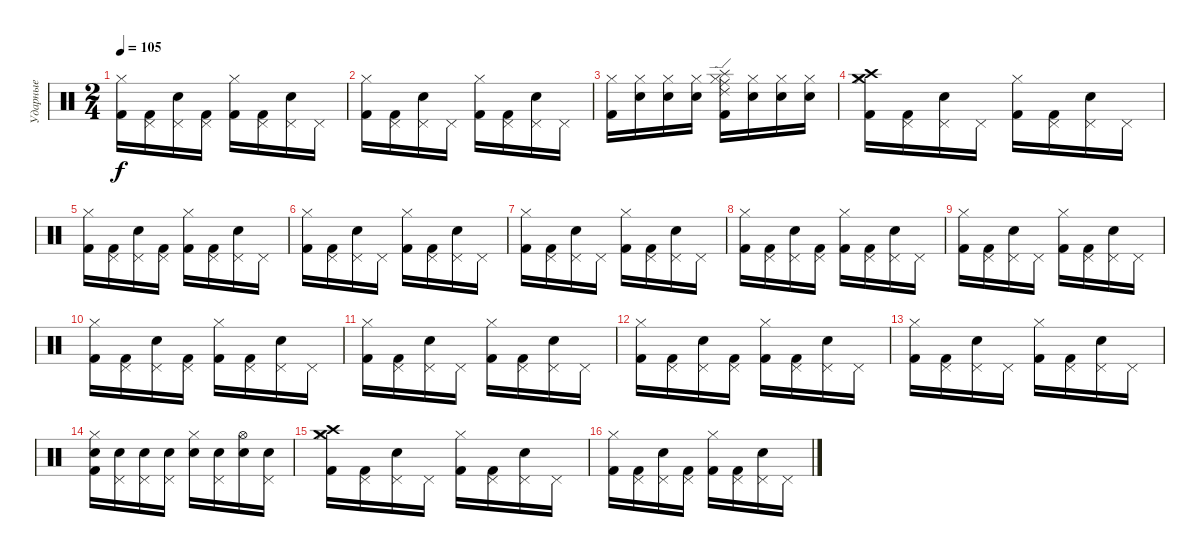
\track ("Ударные" "Ударные") {instrument percussion}
\staff {score}
\articulation defaults
\ts (2 4)
\tempo 105
\clef neutral
\ks c
("Hi-Hat (closed)" "Kick (hit) 2").16{dy f} ("Pedal Hi-Hat (hit)" "Kick (hit) 2").16 ("Pedal Hi-Hat (hit)" "Snare (hit) 2").16 ("Pedal Hi-Hat (hit)" "Kick (hit) 2").16 ("Hi-Hat (closed)" "Kick (hit) 2").16 ("Pedal Hi-Hat (hit)" "Kick (hit) 2").16 ("Pedal Hi-Hat (hit)" "Snare (hit) 2").16 "Pedal Hi-Hat (hit)".16 |
("Hi-Hat (closed)" "Kick (hit) 2").16 ("Pedal Hi-Hat (hit)" "Kick (hit) 2").16 ("Pedal Hi-Hat (hit)" "Snare (hit) 2").16 "Pedal Hi-Hat (hit)".16 ("Hi-Hat (closed)" "Kick (hit) 2").16 ("Pedal Hi-Hat (hit)" "Kick (hit) 2").16 ("Pedal Hi-Hat (hit)" "Snare (hit) 2").16 "Pedal Hi-Hat (hit)".16 |
("Hi-Hat (closed)" "Kick (hit) 2").16 ("Hi-Hat (closed)" "Snare (hit) 2").16 ("Hi-Hat (closed)" "Snare (hit) 2").16 ("Hi-Hat (closed)" "Snare (hit) 2").16 ("Hi-Hat (closed)" "Ride (middle)" "Ride (edge) 2" "Splash (hit)" "Kick (hit) 2").16 ("Hi-Hat (closed)" "Snare (hit) 2").16 ("Hi-Hat (closed)" "Snare (hit) 2").16 ("Hi-Hat (closed)" "Snare (hit) 2").16 |
("Hi-Hat (closed)" "Crash medium (hit)" "Crash high (hit)" "Kick (hit) 2").16 ("Pedal Hi-Hat (hit)" "Kick (hit) 2").16 ("Pedal Hi-Hat (hit)" "Snare (hit) 2").16 "Pedal Hi-Hat (hit)".16 ("Hi-Hat (closed)" "Kick (hit) 2").16 ("Pedal Hi-Hat (hit)" "Kick (hit) 2").16 ("Pedal Hi-Hat (hit)" "Snare (hit) 2").16 "Pedal Hi-Hat (hit)".16 |
("Hi-Hat (closed)" "Kick (hit) 2").16 ("Pedal Hi-Hat (hit)" "Kick (hit) 2").16 ("Pedal Hi-Hat (hit)" "Snare (hit) 2").16 ("Pedal Hi-Hat (hit)" "Kick (hit) 2").16 ("Hi-Hat (closed)" "Kick (hit) 2").16 ("Pedal Hi-Hat (hit)" "Kick (hit) 2").16 ("Pedal Hi-Hat (hit)" "Snare (hit) 2").16 "Pedal Hi-Hat (hit)".16 |
("Hi-Hat (closed)" "Kick (hit) 2").16 ("Pedal Hi-Hat (hit)" "Kick (hit) 2").16 ("Pedal Hi-Hat (hit)" "Snare (hit) 2").16 "Pedal Hi-Hat (hit)".16 ("Hi-Hat (closed)" "Kick (hit) 2").16 ("Pedal Hi-Hat (hit)" "Kick (hit) 2").16 ("Pedal Hi-Hat (hit)" "Snare (hit) 2").16 "Pedal Hi-Hat (hit)".16 |
("Hi-Hat (closed)" "Kick (hit) 2").16 ("Pedal Hi-Hat (hit)" "Kick (hit) 2").16 ("Pedal Hi-Hat (hit)" "Snare (hit) 2").16 "Pedal Hi-Hat (hit)".16 ("Hi-Hat (closed)" "Kick (hit) 2").16 ("Pedal Hi-Hat (hit)" "Kick (hit) 2").16 ("Pedal Hi-Hat (hit)" "Snare (hit) 2").16 "Pedal Hi-Hat (hit)".16 |
("Hi-Hat (closed)" "Kick (hit) 2").16 ("Pedal Hi-Hat (hit)" "Kick (hit) 2").16 ("Pedal Hi-Hat (hit)" "Snare (hit) 2").16 ("Pedal Hi-Hat (hit)" "Kick (hit) 2").16 ("Hi-Hat (closed)" "Kick (hit) 2").16 ("Pedal Hi-Hat (hit)" "Kick (hit) 2").16 ("Pedal Hi-Hat (hit)" "Snare (hit) 2").16 "Pedal Hi-Hat (hit)".16 |
("Hi-Hat (closed)" "Kick (hit) 2").16 ("Pedal Hi-Hat (hit)" "Kick (hit) 2").16 ("Pedal Hi-Hat (hit)" "Snare (hit) 2").16 "Pedal Hi-Hat (hit)".16 ("Hi-Hat (closed)" "Kick (hit) 2").16 ("Pedal Hi-Hat (hit)" "Kick (hit) 2").16 ("Pedal Hi-Hat (hit)" "Snare (hit) 2").16 "Pedal Hi-Hat (hit)".16 |
("Hi-Hat (closed)" "Kick (hit) 2").16 ("Pedal Hi-Hat (hit)" "Kick (hit) 2").16 ("Pedal Hi-Hat (hit)" "Snare (hit) 2").16 ("Pedal Hi-Hat (hit)" "Kick (hit) 2").16 ("Hi-Hat (closed)" "Kick (hit) 2").16 ("Pedal Hi-Hat (hit)" "Kick (hit) 2").16 ("Pedal Hi-Hat (hit)" "Snare (hit) 2").16 "Pedal Hi-Hat (hit)".16 |
("Hi-Hat (closed)" "Kick (hit) 2").16 ("Pedal Hi-Hat (hit)" "Kick (hit) 2").16 ("Pedal Hi-Hat (hit)" "Snare (hit) 2").16 "Pedal Hi-Hat (hit)".16 ("Hi-Hat (closed)" "Kick (hit) 2").16 ("Pedal Hi-Hat (hit)" "Kick (hit) 2").16 ("Pedal Hi-Hat (hit)" "Snare (hit) 2").16 "Pedal Hi-Hat (hit)".16 |
("Hi-Hat (closed)" "Kick (hit) 2").16 ("Pedal Hi-Hat (hit)" "Kick (hit) 2").16 ("Pedal Hi-Hat (hit)" "Snare (hit) 2").16 ("Pedal Hi-Hat (hit)" "Kick (hit) 2").16 ("Hi-Hat (closed)" "Kick (hit) 2").16 ("Pedal Hi-Hat (hit)" "Kick (hit) 2").16 ("Pedal Hi-Hat (hit)" "Snare (hit) 2").16 "Pedal Hi-Hat (hit)".16 |
("Hi-Hat (closed)" "Kick (hit) 2").16 ("Pedal Hi-Hat (hit)" "Kick (hit) 2").16 ("Pedal Hi-Hat (hit)" "Snare (hit) 2").16 "Pedal Hi-Hat (hit)".16 ("Hi-Hat (closed)" "Kick (hit) 2").16 ("Pedal Hi-Hat (hit)" "Kick (hit) 2").16 ("Pedal Hi-Hat (hit)" "Snare (hit) 2").16 "Pedal Hi-Hat (hit)".16 |
("Hi-Hat (closed)" "Snare (hit) 2" "Kick (hit) 2").16 ("Pedal Hi-Hat (hit)" "Snare (hit) 2").16 ("Pedal Hi-Hat (hit)" "Snare (hit) 2").16 ("Pedal Hi-Hat (hit)" "Snare (hit) 2").16 ("Hi-Hat (closed)" "Snare (hit) 2").16 ("Pedal Hi-Hat (hit)" "Snare (hit) 2").16 ("Hi-Hat (open)" "Snare (hit) 2").16 ("Pedal Hi-Hat (hit)" "Snare (hit) 2").16 |
("Hi-Hat (closed)" "Crash medium (hit)" "Crash high (hit)" "Kick (hit) 2").16 ("Pedal Hi-Hat (hit)" "Kick (hit) 2").16 ("Pedal Hi-Hat (hit)" "Snare (hit) 2").16 "Pedal Hi-Hat (hit)".16 ("Hi-Hat (closed)" "Kick (hit) 2").16 ("Pedal Hi-Hat (hit)" "Kick (hit) 2").16 ("Pedal Hi-Hat (hit)" "Snare (hit) 2").16 "Pedal Hi-Hat (hit)".16 |
("Hi-Hat (closed)" "Kick (hit) 2").16 ("Pedal Hi-Hat (hit)" "Kick (hit) 2").16 ("Pedal Hi-Hat (hit)" "Snare (hit) 2").16 ("Pedal Hi-Hat (hit)" "Kick (hit) 2").16 ("Hi-Hat (closed)" "Kick (hit) 2").16 ("Pedal Hi-Hat (hit)" "Kick (hit) 2").16 ("Pedal Hi-Hat (hit)" "Snare (hit) 2").16 "Pedal Hi-Hat (hit)".16
